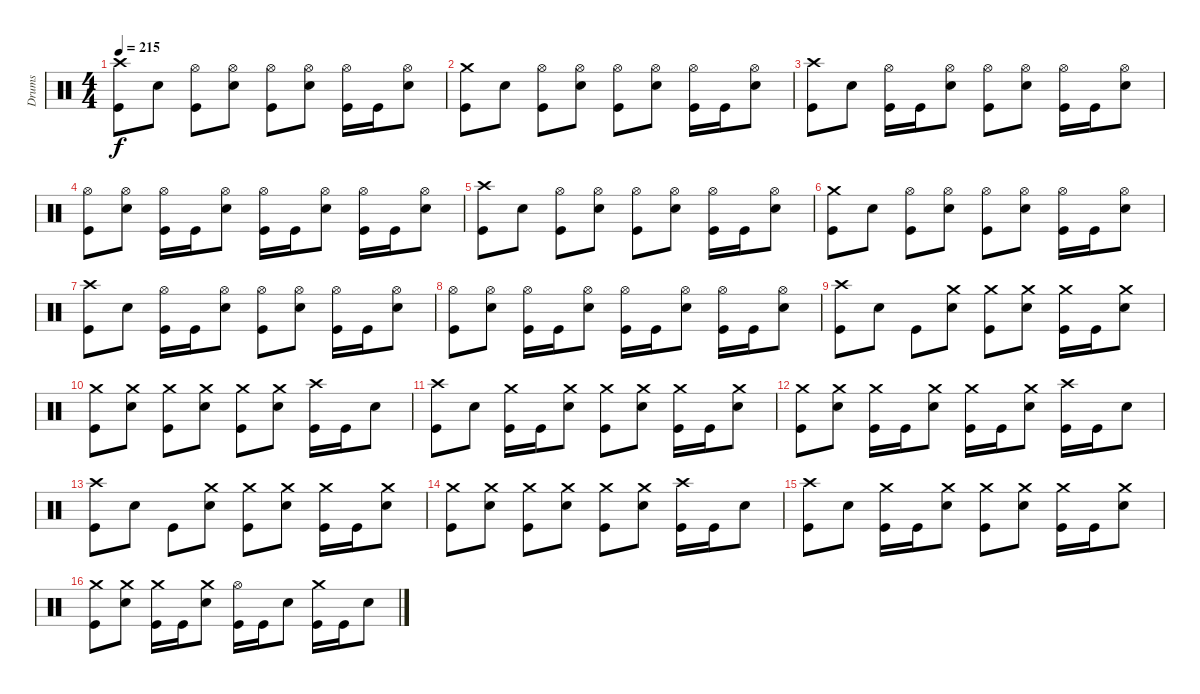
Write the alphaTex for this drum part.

\track ("Drums" "Drums") {instrument percussion}
\staff {score}
\articulation defaults
\ts (4 4)
\tempo 215
\clef neutral
\ks c
("Crash high (hit)" "Kick (hit)").8{dy f} "Snare (hit) 2".8 ("Hi-Hat (open)" "Kick (hit)").8 ("Hi-Hat (open)" "Snare (hit) 2").8 ("Hi-Hat (open)" "Kick (hit)").8 ("Hi-Hat (open)" "Snare (hit) 2").8 ("Hi-Hat (open)" "Kick (hit)").16 "Kick (hit)".16 ("Hi-Hat (open)" "Snare (hit) 2").8 |
("Crash medium (hit)" "Kick (hit)").8 "Snare (hit) 2".8 ("Hi-Hat (open)" "Kick (hit)").8 ("Hi-Hat (open)" "Snare (hit) 2").8 ("Hi-Hat (open)" "Kick (hit)").8 ("Hi-Hat (open)" "Snare (hit) 2").8 ("Hi-Hat (open)" "Kick (hit)").16 "Kick (hit)".16 ("Hi-Hat (open)" "Snare (hit) 2").8 |
("Crash high (hit)" "Kick (hit)").8 "Snare (hit) 2".8 ("Hi-Hat (open)" "Kick (hit)").16 "Kick (hit)".16 ("Hi-Hat (open)" "Snare (hit) 2").8 ("Hi-Hat (open)" "Kick (hit)").8 ("Hi-Hat (open)" "Snare (hit) 2").8 ("Hi-Hat (open)" "Kick (hit)").16 "Kick (hit)".16 ("Hi-Hat (open)" "Snare (hit) 2").8 |
("Hi-Hat (open)" "Kick (hit)").8 ("Hi-Hat (open)" "Snare (hit) 2").8 ("Hi-Hat (open)" "Kick (hit)").16 "Kick (hit)".16 ("Hi-Hat (open)" "Snare (hit) 2").8 ("Hi-Hat (open)" "Kick (hit)").16 "Kick (hit)".16 ("Hi-Hat (open)" "Snare (hit) 2").8 ("Hi-Hat (open)" "Kick (hit)").16 "Kick (hit)".16 ("Hi-Hat (open)" "Snare (hit) 2").8 |
("Crash high (hit)" "Kick (hit)").8 "Snare (hit) 2".8 ("Hi-Hat (open)" "Kick (hit)").8 ("Hi-Hat (open)" "Snare (hit) 2").8 ("Hi-Hat (open)" "Kick (hit)").8 ("Hi-Hat (open)" "Snare (hit) 2").8 ("Hi-Hat (open)" "Kick (hit)").16 "Kick (hit)".16 ("Hi-Hat (open)" "Snare (hit) 2").8 |
("Crash medium (hit)" "Kick (hit)").8 "Snare (hit) 2".8 ("Hi-Hat (open)" "Kick (hit)").8 ("Hi-Hat (open)" "Snare (hit) 2").8 ("Hi-Hat (open)" "Kick (hit)").8 ("Hi-Hat (open)" "Snare (hit) 2").8 ("Hi-Hat (open)" "Kick (hit)").16 "Kick (hit)".16 ("Hi-Hat (open)" "Snare (hit) 2").8 |
("Crash high (hit)" "Kick (hit)").8 "Snare (hit) 2".8 ("Hi-Hat (open)" "Kick (hit)").16 "Kick (hit)".16 ("Hi-Hat (open)" "Snare (hit) 2").8 ("Hi-Hat (open)" "Kick (hit)").8 ("Hi-Hat (open)" "Snare (hit) 2").8 ("Hi-Hat (open)" "Kick (hit)").16 "Kick (hit)".16 ("Hi-Hat (open)" "Snare (hit) 2").8 |
("Hi-Hat (open)" "Kick (hit)").8 ("Hi-Hat (open)" "Snare (hit) 2").8 ("Hi-Hat (open)" "Kick (hit)").16 "Kick (hit)".16 ("Hi-Hat (open)" "Snare (hit) 2").8 ("Hi-Hat (open)" "Kick (hit)").16 "Kick (hit)".16 ("Hi-Hat (open)" "Snare (hit) 2").8 ("Hi-Hat (open)" "Kick (hit)").16 "Kick (hit)".16 ("Hi-Hat (open)" "Snare (hit) 2").8 |
("Crash high (hit)" "Kick (hit)").8 "Snare (hit) 2".8 "Kick (hit)".8 ("Crash medium (hit)" "Snare (hit) 2").8 ("Crash medium (hit)" "Kick (hit)").8 ("Crash medium (hit)" "Snare (hit) 2").8 ("Crash medium (hit)" "Kick (hit)").16 "Kick (hit)".16 ("Crash medium (hit)" "Snare (hit) 2").8 |
("Crash medium (hit)" "Kick (hit)").8 ("Crash medium (hit)" "Snare (hit) 2").8 ("Crash medium (hit)" "Kick (hit)").8 ("Crash medium (hit)" "Snare (hit) 2").8 ("Crash medium (hit)" "Kick (hit)").8 ("Crash medium (hit)" "Snare (hit) 2").8 ("Crash high (hit)" "Kick (hit)").16 "Kick (hit)".16 "Snare (hit) 2".8 |
("Crash high (hit)" "Kick (hit)").8 "Snare (hit) 2".8 ("Crash medium (hit)" "Kick (hit)").16 "Kick (hit)".16 ("Crash medium (hit)" "Snare (hit) 2").8 ("Crash medium (hit)" "Kick (hit)").8 ("Crash medium (hit)" "Snare (hit) 2").8 ("Crash medium (hit)" "Kick (hit)").16 "Kick (hit)".16 ("Crash medium (hit)" "Snare (hit) 2").8 |
("Crash medium (hit)" "Kick (hit)").8 ("Crash medium (hit)" "Snare (hit) 2").8 ("Crash medium (hit)" "Kick (hit)").16 "Kick (hit)".16 ("Crash medium (hit)" "Snare (hit) 2").8 ("Crash medium (hit)" "Kick (hit)").16 "Kick (hit)".16 ("Crash medium (hit)" "Snare (hit) 2").8 ("Crash high (hit)" "Kick (hit)").16 "Kick (hit)".16 "Snare (hit) 2".8 |
("Crash high (hit)" "Kick (hit)").8 "Snare (hit) 2".8 "Kick (hit)".8 ("Crash medium (hit)" "Snare (hit) 2").8 ("Crash medium (hit)" "Kick (hit)").8 ("Crash medium (hit)" "Snare (hit) 2").8 ("Crash medium (hit)" "Kick (hit)").16 "Kick (hit)".16 ("Crash medium (hit)" "Snare (hit) 2").8 |
("Crash medium (hit)" "Kick (hit)").8 ("Crash medium (hit)" "Snare (hit) 2").8 ("Crash medium (hit)" "Kick (hit)").8 ("Crash medium (hit)" "Snare (hit) 2").8 ("Crash medium (hit)" "Kick (hit)").8 ("Crash medium (hit)" "Snare (hit) 2").8 ("Crash high (hit)" "Kick (hit)").16 "Kick (hit)".16 "Snare (hit) 2".8 |
("Crash high (hit)" "Kick (hit)").8 "Snare (hit) 2".8 ("Crash medium (hit)" "Kick (hit)").16 "Kick (hit)".16 ("Crash medium (hit)" "Snare (hit) 2").8 ("Crash medium (hit)" "Kick (hit)").8 ("Crash medium (hit)" "Snare (hit) 2").8 ("Crash medium (hit)" "Kick (hit)").16 "Kick (hit)".16 ("Crash medium (hit)" "Snare (hit) 2").8 |
("Crash medium (hit)" "Kick (hit)").8 ("Crash medium (hit)" "Snare (hit) 2").8 ("Crash medium (hit)" "Kick (hit)").16 "Kick (hit)".16 ("Crash medium (hit)" "Snare (hit) 2").8 ("Hi-Hat (open)" "Kick (hit)").16 "Kick (hit)".16 "Snare (hit) 2".8 ("Crash medium (hit)" "Kick (hit)").16 "Kick (hit)".16 "Snare (hit) 2".8
